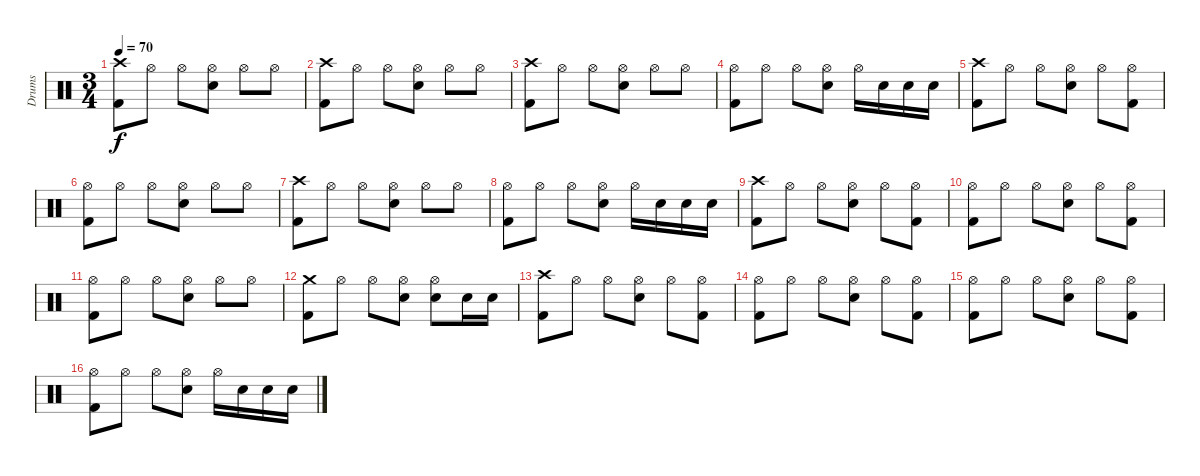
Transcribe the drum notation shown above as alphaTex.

\track ("Drums" "Drums") {instrument percussion}
\staff {score}
\articulation defaults
\ts (3 4)
\tempo 70
\clef neutral
\ks c
("Crash high (hit)" "Kick (hit) 2").8{dy f} "Hi-Hat (open)".8 "Hi-Hat (open)".8 ("Hi-Hat (open)" "Electric Snare (hit)").8 "Hi-Hat (open)".8 "Hi-Hat (open)".8 |
("Crash high (hit)" "Kick (hit) 2").8 "Hi-Hat (open)".8 "Hi-Hat (open)".8 ("Hi-Hat (open)" "Electric Snare (hit)").8 "Hi-Hat (open)".8 "Hi-Hat (open)".8 |
("Crash high (hit)" "Kick (hit) 2").8 "Hi-Hat (open)".8 "Hi-Hat (open)".8 ("Hi-Hat (open)" "Electric Snare (hit)").8 "Hi-Hat (open)".8 "Hi-Hat (open)".8 |
("Hi-Hat (open)" "Kick (hit) 2").8 "Hi-Hat (open)".8 "Hi-Hat (open)".8 ("Hi-Hat (open)" "Electric Snare (hit)").8 "Hi-Hat (open)".16 "Electric Snare (hit)".16 "Electric Snare (hit)".16 "Electric Snare (hit)".16 |
("Crash high (hit)" "Kick (hit) 2").8 "Hi-Hat (open)".8 "Hi-Hat (open)".8 ("Hi-Hat (open)" "Electric Snare (hit)").8 "Hi-Hat (open)".8 ("Hi-Hat (open)" "Kick (hit) 2").8 |
("Hi-Hat (open)" "Kick (hit) 2").8 "Hi-Hat (open)".8 "Hi-Hat (open)".8 ("Hi-Hat (open)" "Electric Snare (hit)").8 "Hi-Hat (open)".8 "Hi-Hat (open)".8 |
("Crash high (hit)" "Kick (hit) 2").8 "Hi-Hat (open)".8 "Hi-Hat (open)".8 ("Hi-Hat (open)" "Electric Snare (hit)").8 "Hi-Hat (open)".8 "Hi-Hat (open)".8 |
("Hi-Hat (open)" "Kick (hit) 2").8 "Hi-Hat (open)".8 "Hi-Hat (open)".8 ("Hi-Hat (open)" "Electric Snare (hit)").8 "Hi-Hat (open)".16 "Electric Snare (hit)".16 "Electric Snare (hit)".16 "Electric Snare (hit)".16 |
("Crash high (hit)" "Kick (hit) 2").8 "Hi-Hat (open)".8 "Hi-Hat (open)".8 ("Hi-Hat (open)" "Electric Snare (hit)").8 "Hi-Hat (open)".8 ("Hi-Hat (open)" "Kick (hit) 2").8 |
("Hi-Hat (open)" "Kick (hit) 2").8 "Hi-Hat (open)".8 "Hi-Hat (open)".8 ("Hi-Hat (open)" "Electric Snare (hit)").8 "Hi-Hat (open)".8 ("Hi-Hat (open)" "Kick (hit) 2").8 |
("Hi-Hat (open)" "Kick (hit) 2").8 "Hi-Hat (open)".8 "Hi-Hat (open)".8 ("Hi-Hat (open)" "Electric Snare (hit)").8 "Hi-Hat (open)".8 "Hi-Hat (open)".8 |
("Crash medium (hit)" "Kick (hit) 2").8 "Hi-Hat (open)".8 "Hi-Hat (open)".8 ("Hi-Hat (open)" "Electric Snare (hit)").8 ("Hi-Hat (open)" "Electric Snare (hit)").8 "Electric Snare (hit)".16 "Electric Snare (hit)".16 |
("Crash high (hit)" "Kick (hit) 2").8 "Hi-Hat (open)".8 "Hi-Hat (open)".8 ("Hi-Hat (open)" "Electric Snare (hit)").8 "Hi-Hat (open)".8 ("Hi-Hat (open)" "Kick (hit) 2").8 |
("Hi-Hat (open)" "Kick (hit) 2").8 "Hi-Hat (open)".8 "Hi-Hat (open)".8 ("Hi-Hat (open)" "Electric Snare (hit)").8 "Hi-Hat (open)".8 ("Hi-Hat (open)" "Kick (hit) 2").8 |
("Hi-Hat (open)" "Kick (hit) 2").8 "Hi-Hat (open)".8 "Hi-Hat (open)".8 ("Hi-Hat (open)" "Electric Snare (hit)").8 "Hi-Hat (open)".8 ("Hi-Hat (open)" "Kick (hit) 2").8 |
("Hi-Hat (open)" "Kick (hit) 2").8 "Hi-Hat (open)".8 "Hi-Hat (open)".8 ("Hi-Hat (open)" "Electric Snare (hit)").8 "Hi-Hat (open)".16 "Electric Snare (hit)".16 "Electric Snare (hit)".16 "Electric Snare (hit)".16
